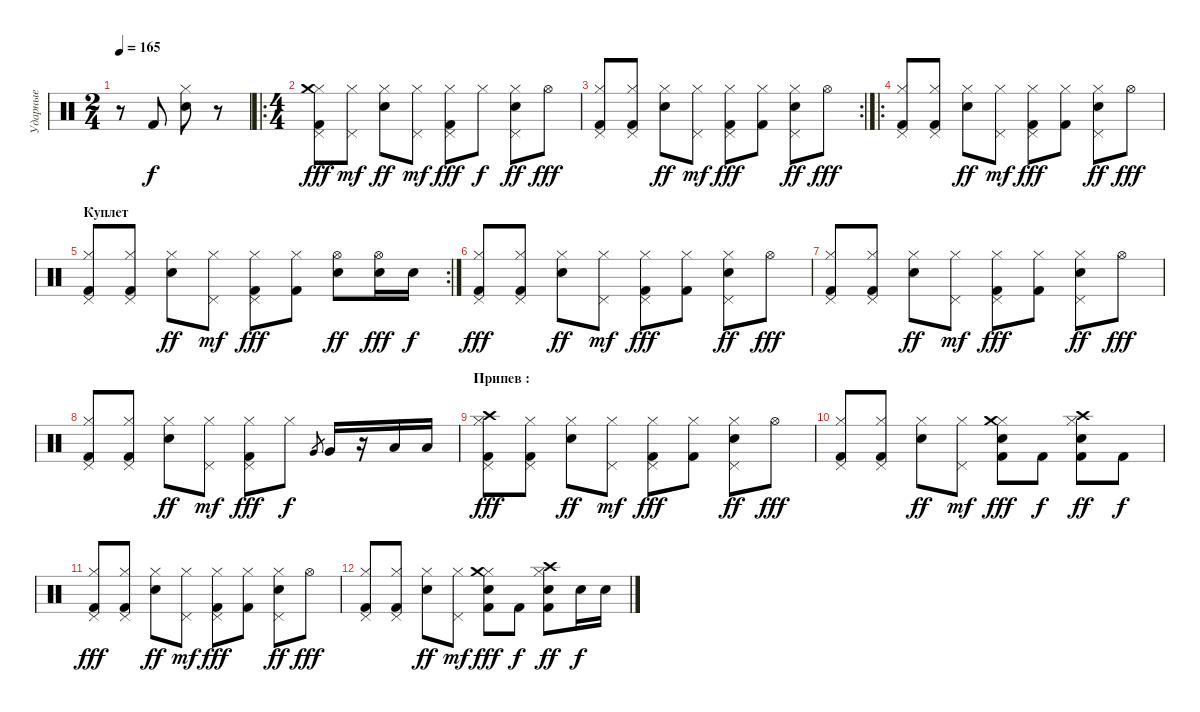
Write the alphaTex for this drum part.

\track ("Ударные" "Ударные") {instrument percussion}
\staff {score}
\articulation defaults
\ts (2 4)
\tempo 165
\clef neutral
\ks c
r.8{dy f} "Kick (hit) 2".8 ("Hi-Hat (closed)" "Electric Snare (hit)").8 r.8 |
\ro
\ts (4 4)
("Hi-Hat (closed)" "Pedal Hi-Hat (hit)" "Kick (hit) 2" "Crash medium (hit)").8{dy fff} ("Hi-Hat (closed)" "Pedal Hi-Hat (hit)").8{dy mf} ("Hi-Hat (closed)" "Electric Snare (hit)").8{dy ff} ("Hi-Hat (closed)" "Pedal Hi-Hat (hit)").8{dy mf} ("Hi-Hat (closed)" "Pedal Hi-Hat (hit)" "Kick (hit) 2").8{dy fff} "Hi-Hat (closed)".8{dy f} ("Hi-Hat (closed)" "Pedal Hi-Hat (hit)" "Electric Snare (hit)").8{dy ff} "Hi-Hat (open)".8{dy fff} |
\rc 2
("Hi-Hat (closed)" "Pedal Hi-Hat (hit)" "Kick (hit) 2").8 ("Hi-Hat (closed)" "Pedal Hi-Hat (hit)" "Kick (hit) 2").8 ("Hi-Hat (closed)" "Electric Snare (hit)").8{dy ff} ("Hi-Hat (closed)" "Pedal Hi-Hat (hit)").8{dy mf} ("Hi-Hat (closed)" "Pedal Hi-Hat (hit)" "Kick (hit) 2").8{dy fff} ("Hi-Hat (closed)" "Kick (hit) 2").8 ("Hi-Hat (closed)" "Pedal Hi-Hat (hit)" "Electric Snare (hit)").8{dy ff} "Hi-Hat (open)".8{dy fff} |
\ro
("Hi-Hat (closed)" "Pedal Hi-Hat (hit)" "Kick (hit) 2").8 ("Hi-Hat (closed)" "Pedal Hi-Hat (hit)" "Kick (hit) 2").8 ("Hi-Hat (closed)" "Electric Snare (hit)").8{dy ff} ("Hi-Hat (closed)" "Pedal Hi-Hat (hit)").8{dy mf} ("Hi-Hat (closed)" "Pedal Hi-Hat (hit)" "Kick (hit) 2").8{dy fff} ("Hi-Hat (closed)" "Kick (hit) 2").8 ("Hi-Hat (closed)" "Pedal Hi-Hat (hit)" "Electric Snare (hit)").8{dy ff} "Hi-Hat (open)".8{dy fff} |
\rc 2
\section ("" "Куплет")
("Hi-Hat (closed)" "Pedal Hi-Hat (hit)" "Kick (hit) 2").8 ("Hi-Hat (closed)" "Pedal Hi-Hat (hit)" "Kick (hit) 2").8 ("Hi-Hat (closed)" "Electric Snare (hit)").8{dy ff} ("Hi-Hat (closed)" "Pedal Hi-Hat (hit)").8{dy mf} ("Hi-Hat (closed)" "Pedal Hi-Hat (hit)" "Kick (hit) 2").8{dy fff} ("Hi-Hat (closed)" "Kick (hit) 2").8 ("Hi-Hat (open)" "Electric Snare (hit)").8{dy ff} ("Hi-Hat (open)" "Electric Snare (hit)").16{dy fff} "Electric Snare (hit)".16{dy f} |
("Hi-Hat (closed)" "Pedal Hi-Hat (hit)" "Kick (hit) 2").8{dy fff} ("Hi-Hat (closed)" "Pedal Hi-Hat (hit)" "Kick (hit) 2").8 ("Hi-Hat (closed)" "Electric Snare (hit)").8{dy ff} ("Hi-Hat (closed)" "Pedal Hi-Hat (hit)").8{dy mf} ("Hi-Hat (closed)" "Pedal Hi-Hat (hit)" "Kick (hit) 2").8{dy fff} ("Hi-Hat (closed)" "Kick (hit) 2").8 ("Hi-Hat (closed)" "Pedal Hi-Hat (hit)" "Electric Snare (hit)").8{dy ff} "Hi-Hat (open)".8{dy fff} |
("Hi-Hat (closed)" "Pedal Hi-Hat (hit)" "Kick (hit) 2").8 ("Hi-Hat (closed)" "Pedal Hi-Hat (hit)" "Kick (hit) 2").8 ("Hi-Hat (closed)" "Electric Snare (hit)").8{dy ff} ("Hi-Hat (closed)" "Pedal Hi-Hat (hit)").8{dy mf} ("Hi-Hat (closed)" "Pedal Hi-Hat (hit)" "Kick (hit) 2").8{dy fff} ("Hi-Hat (closed)" "Kick (hit) 2").8 ("Hi-Hat (closed)" "Pedal Hi-Hat (hit)" "Electric Snare (hit)").8{dy ff} "Hi-Hat (open)".8{dy fff} |
("Hi-Hat (closed)" "Pedal Hi-Hat (hit)" "Kick (hit) 2").8 ("Hi-Hat (closed)" "Pedal Hi-Hat (hit)" "Kick (hit) 2").8 ("Hi-Hat (closed)" "Electric Snare (hit)").8{dy ff} ("Hi-Hat (closed)" "Pedal Hi-Hat (hit)").8{dy mf} ("Hi-Hat (closed)" "Pedal Hi-Hat (hit)" "Kick (hit) 2").8{dy fff} "Hi-Hat (closed)".8{dy f} "Very Low Tom (hit)".8{gr} "Very Low Tom (hit)".16 r.16 "Low Tom (hit)".16 "Low Tom (hit)".16 |
\section ("" "Припев :")
("Hi-Hat (closed)" "Pedal Hi-Hat (hit)" "Kick (hit) 2" "Crash high (hit)").8{dy fff} ("Hi-Hat (closed)" "Pedal Hi-Hat (hit)" "Kick (hit) 2").8 ("Hi-Hat (closed)" "Electric Snare (hit)").8{dy ff} ("Hi-Hat (closed)" "Pedal Hi-Hat (hit)").8{dy mf} ("Hi-Hat (closed)" "Pedal Hi-Hat (hit)" "Kick (hit) 2").8{dy fff} ("Hi-Hat (closed)" "Kick (hit) 2").8 ("Hi-Hat (closed)" "Pedal Hi-Hat (hit)" "Electric Snare (hit)").8{dy ff} "Hi-Hat (open)".8{dy fff} |
("Hi-Hat (closed)" "Pedal Hi-Hat (hit)" "Kick (hit) 2").8 ("Hi-Hat (closed)" "Pedal Hi-Hat (hit)" "Kick (hit) 2").8 ("Hi-Hat (closed)" "Electric Snare (hit)").8{dy ff} ("Hi-Hat (closed)" "Pedal Hi-Hat (hit)").8{dy mf} ("Hi-Hat (closed)" "Crash medium (hit)" "Kick (hit) 2" "Electric Snare (hit)").8{dy fff} "Kick (hit) 2".8{dy f} ("Hi-Hat (closed)" "Crash high (hit)" "Kick (hit) 2" "Electric Snare (hit)").8{dy ff} "Kick (hit) 2".8{dy f} |
("Hi-Hat (closed)" "Pedal Hi-Hat (hit)" "Kick (hit) 2").8{dy fff} ("Hi-Hat (closed)" "Pedal Hi-Hat (hit)" "Kick (hit) 2").8 ("Hi-Hat (closed)" "Electric Snare (hit)").8{dy ff} ("Hi-Hat (closed)" "Pedal Hi-Hat (hit)").8{dy mf} ("Hi-Hat (closed)" "Pedal Hi-Hat (hit)" "Kick (hit) 2").8{dy fff} ("Hi-Hat (closed)" "Kick (hit) 2").8 ("Hi-Hat (closed)" "Pedal Hi-Hat (hit)" "Electric Snare (hit)").8{dy ff} "Hi-Hat (open)".8{dy fff} |
("Hi-Hat (closed)" "Pedal Hi-Hat (hit)" "Kick (hit) 2").8 ("Hi-Hat (closed)" "Pedal Hi-Hat (hit)" "Kick (hit) 2").8 ("Hi-Hat (closed)" "Electric Snare (hit)").8{dy ff} ("Hi-Hat (closed)" "Pedal Hi-Hat (hit)").8{dy mf} ("Hi-Hat (closed)" "Crash medium (hit)" "Kick (hit) 2" "Electric Snare (hit)").8{dy fff} "Kick (hit) 2".8{dy f} ("Hi-Hat (closed)" "Crash high (hit)" "Kick (hit) 2" "Electric Snare (hit)").8{dy ff} "Electric Snare (hit)".16{dy f} "Electric Snare (hit)".16
